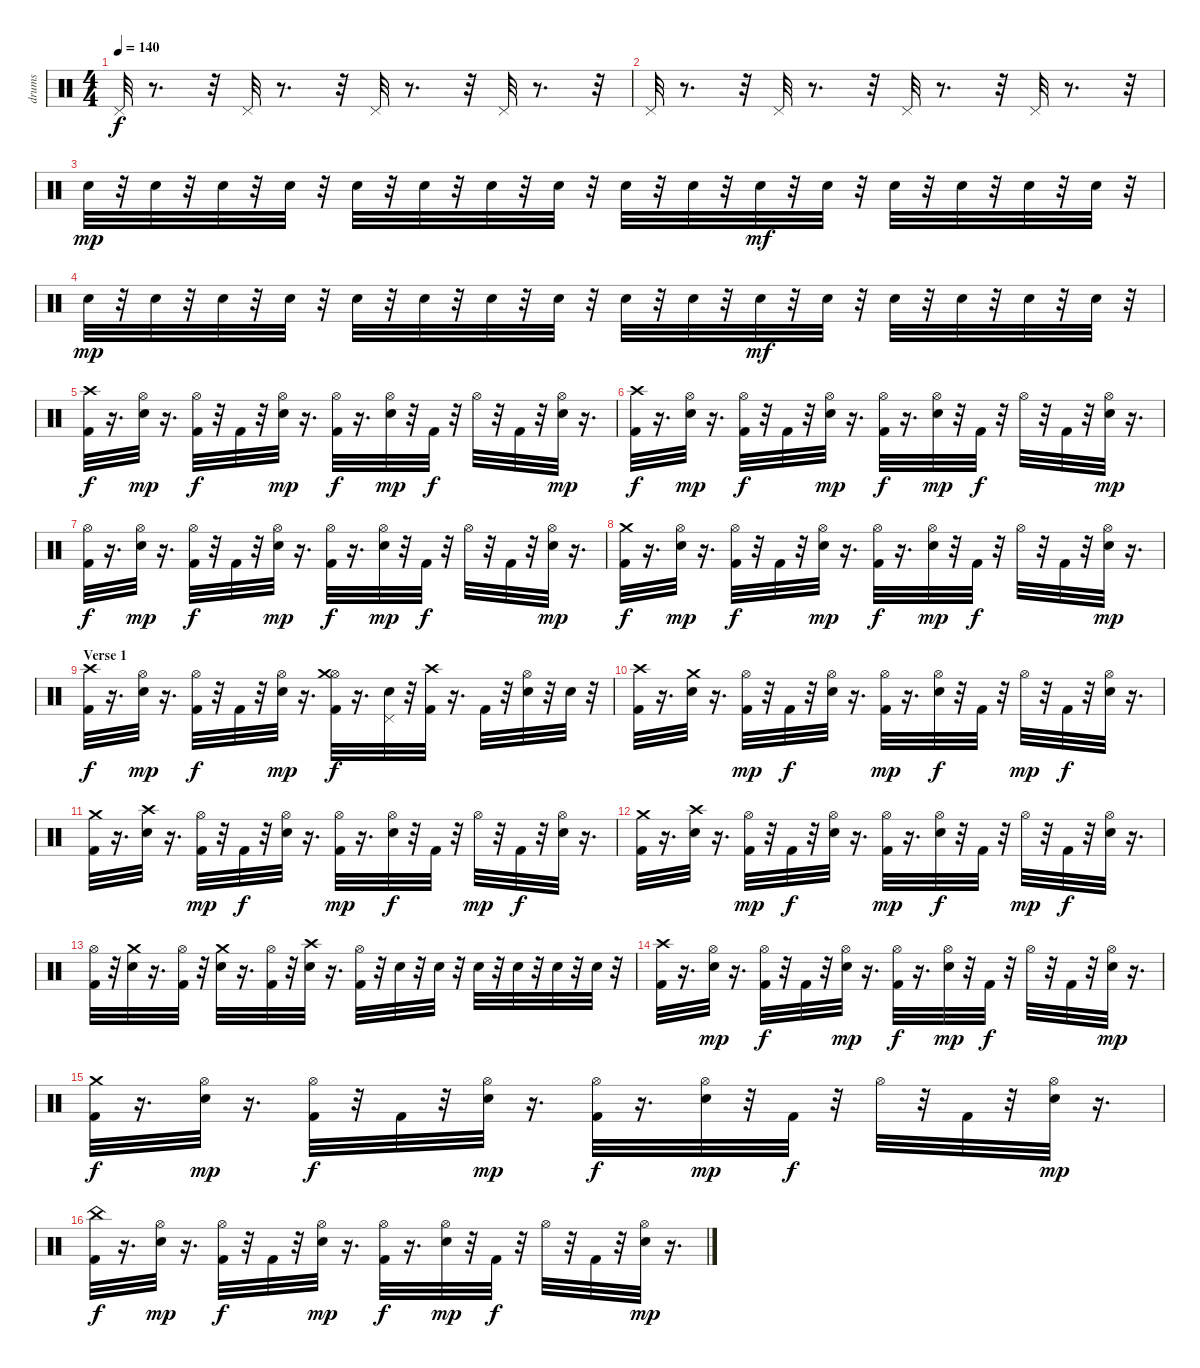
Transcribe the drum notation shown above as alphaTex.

\track ("drums" "drums") {instrument percussion}
\staff {score}
\articulation defaults
\ts (4 4)
\tempo 140
\clef neutral
\ks c "Pedal Hi-Hat (hit)".32{dy f}
r.8{d} r.32 "Pedal Hi-Hat (hit)".32 r.8{d} r.32 "Pedal Hi-Hat (hit)".32 r.8{d} r.32 "Pedal Hi-Hat (hit)".32 r.8{d} r.32 |
"Pedal Hi-Hat (hit)".32 r.8{d} r.32 "Pedal Hi-Hat (hit)".32 r.8{d} r.32 "Pedal Hi-Hat (hit)".32 r.8{d} r.32 "Pedal Hi-Hat (hit)".32 r.8{d} r.32 |
"Electric Snare (hit)".32{dy mp} r.32 "Electric Snare (hit)".32 r.32 "Electric Snare (hit)".32 r.32 "Electric Snare (hit)".32 r.32 "Electric Snare (hit)".32 r.32 "Electric Snare (hit)".32 r.32 "Electric Snare (hit)".32 r.32 "Electric Snare (hit)".32 r.32 "Electric Snare (hit)".32 r.32 "Electric Snare (hit)".32 r.32 "Electric Snare (hit)".32{dy mf} r.32 "Electric Snare (hit)".32 r.32 "Electric Snare (hit)".32 r.32 "Electric Snare (hit)".32 r.32 "Electric Snare (hit)".32 r.32 "Electric Snare (hit)".32 r.32 |
"Electric Snare (hit)".32{dy mp} r.32 "Electric Snare (hit)".32 r.32 "Electric Snare (hit)".32 r.32 "Electric Snare (hit)".32 r.32 "Electric Snare (hit)".32 r.32 "Electric Snare (hit)".32 r.32 "Electric Snare (hit)".32 r.32 "Electric Snare (hit)".32 r.32 "Electric Snare (hit)".32 r.32 "Electric Snare (hit)".32 r.32 "Electric Snare (hit)".32{dy mf} r.32 "Electric Snare (hit)".32 r.32 "Electric Snare (hit)".32 r.32 "Electric Snare (hit)".32 r.32 "Electric Snare (hit)".32 r.32 "Electric Snare (hit)".32 r.32 |
("Crash high (hit)" "Kick (hit) 2").32{dy f} r.16{d} ("Hi-Hat (open)" "Electric Snare (hit)").32{dy mp} r.16{d} ("Hi-Hat (open)" "Kick (hit) 2").32{dy f} r.32 "Kick (hit) 2".32 r.32 ("Hi-Hat (open)" "Electric Snare (hit)").32{dy mp} r.16{d} ("Hi-Hat (open)" "Kick (hit) 2").32{dy f} r.16{d} ("Hi-Hat (open)" "Electric Snare (hit)").32{dy mp} r.32 "Kick (hit) 2".32{dy f} r.32 "Hi-Hat (open)".32 r.32 "Kick (hit) 2".32 r.32 ("Hi-Hat (open)" "Electric Snare (hit)").32{dy mp} r.16{d} |
("Crash high (hit)" "Kick (hit) 2").32{dy f} r.16{d} ("Hi-Hat (open)" "Electric Snare (hit)").32{dy mp} r.16{d} ("Hi-Hat (open)" "Kick (hit) 2").32{dy f} r.32 "Kick (hit) 2".32 r.32 ("Hi-Hat (open)" "Electric Snare (hit)").32{dy mp} r.16{d} ("Hi-Hat (open)" "Kick (hit) 2").32{dy f} r.16{d} ("Hi-Hat (open)" "Electric Snare (hit)").32{dy mp} r.32 "Kick (hit) 2".32{dy f} r.32 "Hi-Hat (open)".32 r.32 "Kick (hit) 2".32 r.32 ("Hi-Hat (open)" "Electric Snare (hit)").32{dy mp} r.16{d} |
("Hi-Hat (open)" "Kick (hit) 2").32{dy f} r.16{d} ("Hi-Hat (open)" "Electric Snare (hit)").32{dy mp} r.16{d} ("Hi-Hat (open)" "Kick (hit) 2").32{dy f} r.32 "Kick (hit) 2".32 r.32 ("Hi-Hat (open)" "Electric Snare (hit)").32{dy mp} r.16{d} ("Hi-Hat (open)" "Kick (hit) 2").32{dy f} r.16{d} ("Hi-Hat (open)" "Electric Snare (hit)").32{dy mp} r.32 "Kick (hit) 2".32{dy f} r.32 "Hi-Hat (open)".32 r.32 "Kick (hit) 2".32 r.32 ("Hi-Hat (open)" "Electric Snare (hit)").32{dy mp} r.16{d} |
("Crash medium (hit)" "Kick (hit) 2").32{dy f} r.16{d} ("Hi-Hat (open)" "Electric Snare (hit)").32{dy mp} r.16{d} ("Hi-Hat (open)" "Kick (hit) 2").32{dy f} r.32 "Kick (hit) 2".32 r.32 ("Hi-Hat (open)" "Electric Snare (hit)").32{dy mp} r.16{d} ("Hi-Hat (open)" "Kick (hit) 2").32{dy f} r.16{d} ("Hi-Hat (open)" "Electric Snare (hit)").32{dy mp} r.32 "Kick (hit) 2".32{dy f} r.32 "Hi-Hat (open)".32 r.32 "Kick (hit) 2".32 r.32 ("Hi-Hat (open)" "Electric Snare (hit)").32{dy mp} r.16{d} |
\section ("" "Verse 1")
("Crash high (hit)" "Kick (hit) 2").32{dy f} r.16{d} ("Hi-Hat (open)" "Electric Snare (hit)").32{dy mp} r.16{d} ("Hi-Hat (open)" "Kick (hit) 2").32{dy f} r.32 "Kick (hit) 2".32 r.32 ("Hi-Hat (open)" "Electric Snare (hit)").32{dy mp} r.16{d} ("Hi-Hat (open)" "Crash medium (hit)" "Kick (hit) 2").32{dy f} r.16{d} ("Pedal Hi-Hat (hit)" "Electric Snare (hit)").32 r.32 ("Crash high (hit)" "Kick (hit) 2").32 r.16{d} "Kick (hit) 2".32 r.32 ("Hi-Hat (open)" "Electric Snare (hit)").32 r.32 "Electric Snare (hit)".32 r.32 |
("Crash high (hit)" "Kick (hit) 2").32 r.16{d} ("Crash medium (hit)" "Electric Snare (hit)").32 r.16{d} ("Hi-Hat (open)" "Kick (hit) 2").32{dy mp} r.32 "Kick (hit) 2".32{dy f} r.32 ("Hi-Hat (open)" "Electric Snare (hit)").32 r.16{d} ("Hi-Hat (open)" "Kick (hit) 2").32{dy mp} r.16{d} ("Hi-Hat (open)" "Electric Snare (hit)").32{dy f} r.32 "Kick (hit) 2".32 r.32 "Hi-Hat (open)".32{dy mp} r.32 "Kick (hit) 2".32{dy f} r.32 ("Hi-Hat (open)" "Electric Snare (hit)").32 r.16{d} |
("Crash medium (hit)" "Kick (hit) 2").32 r.16{d} ("Electric Snare (hit)" "Crash high (hit)").32 r.16{d} ("Hi-Hat (open)" "Kick (hit) 2").32{dy mp} r.32 "Kick (hit) 2".32{dy f} r.32 ("Hi-Hat (open)" "Electric Snare (hit)").32 r.16{d} ("Hi-Hat (open)" "Kick (hit) 2").32{dy mp} r.16{d} ("Hi-Hat (open)" "Electric Snare (hit)").32{dy f} r.32 "Kick (hit) 2".32 r.32 "Hi-Hat (open)".32{dy mp} r.32 "Kick (hit) 2".32{dy f} r.32 ("Hi-Hat (open)" "Electric Snare (hit)").32 r.16{d} |
("Kick (hit) 2" "Crash medium (hit)").32 r.16{d} ("Electric Snare (hit)" "Crash high (hit)").32 r.16{d} ("Hi-Hat (open)" "Kick (hit) 2").32{dy mp} r.32 "Kick (hit) 2".32{dy f} r.32 ("Electric Snare (hit)" "Hi-Hat (open)").32 r.16{d} ("Hi-Hat (open)" "Kick (hit) 2").32{dy mp} r.16{d} ("Electric Snare (hit)" "Hi-Hat (open)").32{dy f} r.32 "Kick (hit) 2".32 r.32 "Hi-Hat (open)".32{dy mp} r.32 "Kick (hit) 2".32{dy f} r.32 ("Electric Snare (hit)" "Hi-Hat (open)").32 r.16{d} |
("Hi-Hat (open)" "Kick (hit) 2").32 r.32 ("Crash medium (hit)" "Electric Snare (hit)").32 r.16{d} ("Hi-Hat (open)" "Kick (hit) 2").32 r.32 ("Crash medium (hit)" "Electric Snare (hit)").32 r.16{d} ("Hi-Hat (open)" "Kick (hit) 2").32 r.32 ("Crash high (hit)" "Electric Snare (hit)").32 r.16{d} ("Hi-Hat (open)" "Kick (hit) 2").32 r.32 "Electric Snare (hit)".32 r.32 "Electric Snare (hit)".32 r.32 "Electric Snare (hit)".32 r.32 "Electric Snare (hit)".32 r.32 "Electric Snare (hit)".32 r.32 "Electric Snare (hit)".32 r.32 |
("Crash high (hit)" "Kick (hit) 2").32 r.16{d} ("Hi-Hat (open)" "Electric Snare (hit)").32{dy mp} r.16{d} ("Hi-Hat (open)" "Kick (hit) 2").32{dy f} r.32 "Kick (hit) 2".32 r.32 ("Hi-Hat (open)" "Electric Snare (hit)").32{dy mp} r.16{d} ("Hi-Hat (open)" "Kick (hit) 2").32{dy f} r.16{d} ("Hi-Hat (open)" "Electric Snare (hit)").32{dy mp} r.32 "Kick (hit) 2".32{dy f} r.32 "Hi-Hat (open)".32 r.32 "Kick (hit) 2".32 r.32 ("Hi-Hat (open)" "Electric Snare (hit)").32{dy mp} r.16{d} |
("Crash medium (hit)" "Kick (hit) 2").32{dy f} r.16{d} ("Hi-Hat (open)" "Electric Snare (hit)").32{dy mp} r.16{d} ("Hi-Hat (open)" "Kick (hit) 2").32{dy f} r.32 "Kick (hit) 2".32 r.32 ("Hi-Hat (open)" "Electric Snare (hit)").32{dy mp} r.16{d} ("Hi-Hat (open)" "Kick (hit) 2").32{dy f} r.16{d} ("Hi-Hat (open)" "Electric Snare (hit)").32{dy mp} r.32 "Kick (hit) 2".32{dy f} r.32 "Hi-Hat (open)".32 r.32 "Kick (hit) 2".32 r.32 ("Hi-Hat (open)" "Electric Snare (hit)").32{dy mp} r.16{d} |
("China (hit)" "Kick (hit) 2").32{dy f} r.16{d} ("Hi-Hat (open)" "Electric Snare (hit)").32{dy mp} r.16{d} ("Hi-Hat (open)" "Kick (hit) 2").32{dy f} r.32 "Kick (hit) 2".32 r.32 ("Hi-Hat (open)" "Electric Snare (hit)").32{dy mp} r.16{d} ("Hi-Hat (open)" "Kick (hit) 2").32{dy f} r.16{d} ("Hi-Hat (open)" "Electric Snare (hit)").32{dy mp} r.32 "Kick (hit) 2".32{dy f} r.32 "Hi-Hat (open)".32 r.32 "Kick (hit) 2".32 r.32 ("Hi-Hat (open)" "Electric Snare (hit)").32{dy mp} r.16{d}
